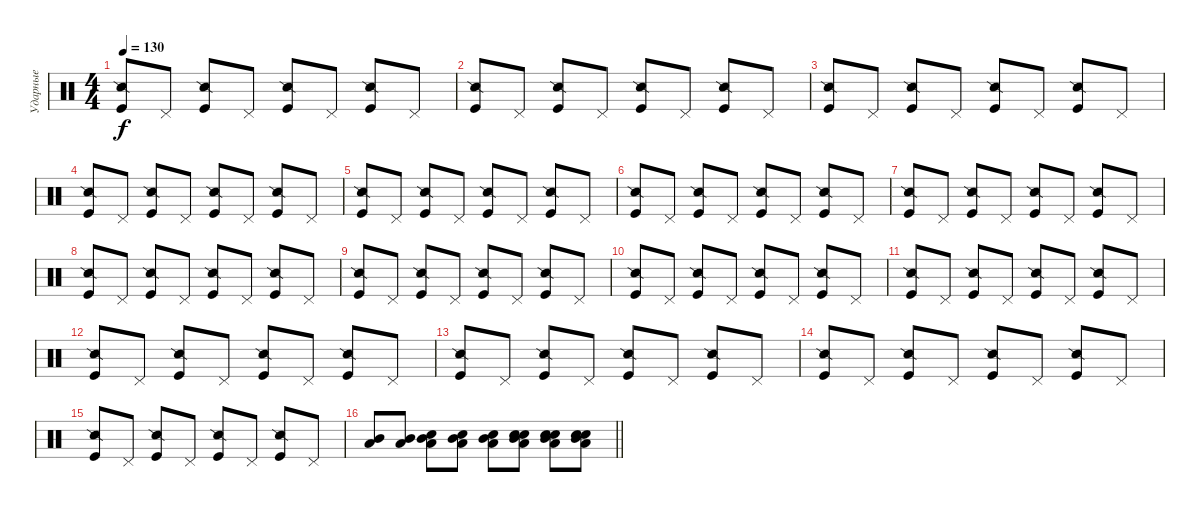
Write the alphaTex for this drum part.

\track ("Ударные" "Ударные") {instrument percussion}
\staff {score}
\articulation defaults
\ts (4 4)
\tempo 130
\clef neutral
\ks c
("Kick (hit)" "Snare (side stick) 2").8{dy f} "Pedal Hi-Hat (hit)".8 ("Kick (hit)" "Snare (side stick) 2").8 "Pedal Hi-Hat (hit)".8 ("Kick (hit)" "Snare (side stick) 2").8 "Pedal Hi-Hat (hit)".8 ("Kick (hit)" "Snare (side stick) 2").8 "Pedal Hi-Hat (hit)".8 |
("Kick (hit)" "Snare (side stick) 2").8 "Pedal Hi-Hat (hit)".8 ("Kick (hit)" "Snare (side stick) 2").8 "Pedal Hi-Hat (hit)".8 ("Kick (hit)" "Snare (side stick) 2").8 "Pedal Hi-Hat (hit)".8 ("Kick (hit)" "Snare (side stick) 2").8 "Pedal Hi-Hat (hit)".8 |
("Kick (hit)" "Snare (side stick) 2").8 "Pedal Hi-Hat (hit)".8 ("Kick (hit)" "Snare (side stick) 2").8 "Pedal Hi-Hat (hit)".8 ("Kick (hit)" "Snare (side stick) 2").8 "Pedal Hi-Hat (hit)".8 ("Kick (hit)" "Snare (side stick) 2").8 "Pedal Hi-Hat (hit)".8 |
("Kick (hit)" "Snare (side stick) 2").8 "Pedal Hi-Hat (hit)".8 ("Kick (hit)" "Snare (side stick) 2").8 "Pedal Hi-Hat (hit)".8 ("Kick (hit)" "Snare (side stick) 2").8 "Pedal Hi-Hat (hit)".8 ("Kick (hit)" "Snare (side stick) 2").8 "Pedal Hi-Hat (hit)".8 |
("Kick (hit)" "Snare (side stick) 2").8 "Pedal Hi-Hat (hit)".8 ("Kick (hit)" "Snare (side stick) 2").8 "Pedal Hi-Hat (hit)".8 ("Kick (hit)" "Snare (side stick) 2").8 "Pedal Hi-Hat (hit)".8 ("Kick (hit)" "Snare (side stick) 2").8 "Pedal Hi-Hat (hit)".8 |
("Kick (hit)" "Snare (side stick) 2").8 "Pedal Hi-Hat (hit)".8 ("Kick (hit)" "Snare (side stick) 2").8 "Pedal Hi-Hat (hit)".8 ("Kick (hit)" "Snare (side stick) 2").8 "Pedal Hi-Hat (hit)".8 ("Kick (hit)" "Snare (side stick) 2").8 "Pedal Hi-Hat (hit)".8 |
("Kick (hit)" "Snare (side stick) 2").8 "Pedal Hi-Hat (hit)".8 ("Kick (hit)" "Snare (side stick) 2").8 "Pedal Hi-Hat (hit)".8 ("Kick (hit)" "Snare (side stick) 2").8 "Pedal Hi-Hat (hit)".8 ("Kick (hit)" "Snare (side stick) 2").8 "Pedal Hi-Hat (hit)".8 |
("Kick (hit)" "Snare (side stick) 2").8 "Pedal Hi-Hat (hit)".8 ("Kick (hit)" "Snare (side stick) 2").8 "Pedal Hi-Hat (hit)".8 ("Kick (hit)" "Snare (side stick) 2").8 "Pedal Hi-Hat (hit)".8 ("Kick (hit)" "Snare (side stick) 2").8 "Pedal Hi-Hat (hit)".8 |
("Kick (hit)" "Snare (side stick) 2").8 "Pedal Hi-Hat (hit)".8 ("Kick (hit)" "Snare (side stick) 2").8 "Pedal Hi-Hat (hit)".8 ("Kick (hit)" "Snare (side stick) 2").8 "Pedal Hi-Hat (hit)".8 ("Kick (hit)" "Snare (side stick) 2").8 "Pedal Hi-Hat (hit)".8 |
("Kick (hit)" "Snare (side stick) 2").8 "Pedal Hi-Hat (hit)".8 ("Kick (hit)" "Snare (side stick) 2").8 "Pedal Hi-Hat (hit)".8 ("Kick (hit)" "Snare (side stick) 2").8 "Pedal Hi-Hat (hit)".8 ("Kick (hit)" "Snare (side stick) 2").8 "Pedal Hi-Hat (hit)".8 |
("Kick (hit)" "Snare (side stick) 2").8 "Pedal Hi-Hat (hit)".8 ("Kick (hit)" "Snare (side stick) 2").8 "Pedal Hi-Hat (hit)".8 ("Kick (hit)" "Snare (side stick) 2").8 "Pedal Hi-Hat (hit)".8 ("Kick (hit)" "Snare (side stick) 2").8 "Pedal Hi-Hat (hit)".8 |
("Kick (hit)" "Snare (side stick) 2").8 "Pedal Hi-Hat (hit)".8 ("Kick (hit)" "Snare (side stick) 2").8 "Pedal Hi-Hat (hit)".8 ("Kick (hit)" "Snare (side stick) 2").8 "Pedal Hi-Hat (hit)".8 ("Kick (hit)" "Snare (side stick) 2").8 "Pedal Hi-Hat (hit)".8 |
("Kick (hit)" "Snare (side stick) 2").8 "Pedal Hi-Hat (hit)".8 ("Kick (hit)" "Snare (side stick) 2").8 "Pedal Hi-Hat (hit)".8 ("Kick (hit)" "Snare (side stick) 2").8 "Pedal Hi-Hat (hit)".8 ("Kick (hit)" "Snare (side stick) 2").8 "Pedal Hi-Hat (hit)".8 |
("Kick (hit)" "Snare (side stick) 2").8 "Pedal Hi-Hat (hit)".8 ("Kick (hit)" "Snare (side stick) 2").8 "Pedal Hi-Hat (hit)".8 ("Kick (hit)" "Snare (side stick) 2").8 "Pedal Hi-Hat (hit)".8 ("Kick (hit)" "Snare (side stick) 2").8 "Pedal Hi-Hat (hit)".8 |
("Kick (hit)" "Snare (side stick) 2").8 "Pedal Hi-Hat (hit)".8 ("Kick (hit)" "Snare (side stick) 2").8 "Pedal Hi-Hat (hit)".8 ("Kick (hit)" "Snare (side stick) 2").8 "Pedal Hi-Hat (hit)".8 ("Kick (hit)" "Snare (side stick) 2").8 "Pedal Hi-Hat (hit)".8 |
\barLineRight lightlight
("Mid Tom (hit)" "Low Tom (hit)").8 ("Mid Tom (hit)" "Low Tom (hit)").8 ("Mid Tom (hit)" "Snare (hit) 2" "Low Tom (hit)").8 ("Mid Tom (hit)" "Snare (hit) 2" "Low Tom (hit)").8 ("Mid Tom (hit)" "Snare (hit) 2" "Low Tom (hit)").8 ("Snare (hit) 2" "Mid Tom (hit)" "Electric Snare (hit)" "Low Tom (hit)").8 ("Snare (hit) 2" "Mid Tom (hit)" "Electric Snare (hit)" "Low Tom (hit)").8 ("Snare (hit) 2" "Mid Tom (hit)" "Electric Snare (hit)" "Low Tom (hit)").8
